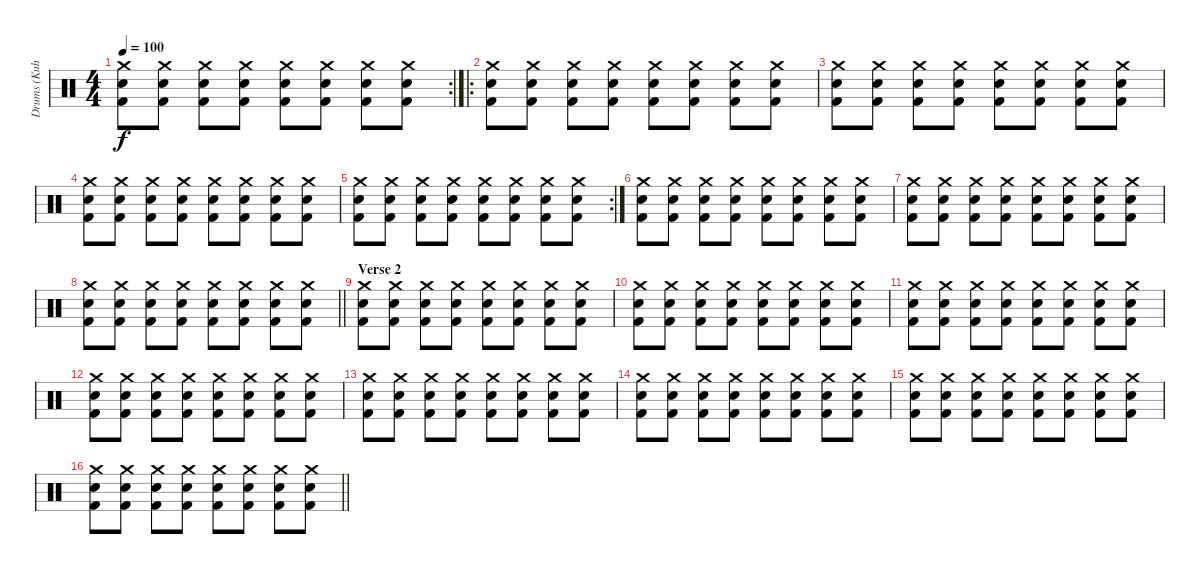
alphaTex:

\track ("Drums (Kuhara)" "Drums (Kuh") {instrument percussion}
\staff {score}
\articulation defaults
\rc 2
\ts (4 4)
\tempo 100
\clef neutral
\ks c
("Crash medium (hit)" "Electric Snare (hit)" "Kick (hit) 2").8{dy f} ("Crash medium (hit)" "Electric Snare (hit)" "Kick (hit) 2").8 ("Crash medium (hit)" "Electric Snare (hit)" "Kick (hit) 2").8 ("Crash medium (hit)" "Electric Snare (hit)" "Kick (hit) 2").8 ("Crash medium (hit)" "Electric Snare (hit)" "Kick (hit) 2").8 ("Crash medium (hit)" "Electric Snare (hit)" "Kick (hit) 2").8 ("Crash medium (hit)" "Electric Snare (hit)" "Kick (hit) 2").8 ("Crash medium (hit)" "Electric Snare (hit)" "Kick (hit) 2").8 |
\ro
("Crash medium (hit)" "Electric Snare (hit)" "Kick (hit) 2").8 ("Crash medium (hit)" "Electric Snare (hit)" "Kick (hit) 2").8 ("Crash medium (hit)" "Electric Snare (hit)" "Kick (hit) 2").8 ("Crash medium (hit)" "Electric Snare (hit)" "Kick (hit) 2").8 ("Crash medium (hit)" "Electric Snare (hit)" "Kick (hit) 2").8 ("Crash medium (hit)" "Electric Snare (hit)" "Kick (hit) 2").8 ("Crash medium (hit)" "Electric Snare (hit)" "Kick (hit) 2").8 ("Crash medium (hit)" "Electric Snare (hit)" "Kick (hit) 2").8 |
("Crash medium (hit)" "Electric Snare (hit)" "Kick (hit) 2").8 ("Crash medium (hit)" "Electric Snare (hit)" "Kick (hit) 2").8 ("Crash medium (hit)" "Electric Snare (hit)" "Kick (hit) 2").8 ("Crash medium (hit)" "Electric Snare (hit)" "Kick (hit) 2").8 ("Crash medium (hit)" "Electric Snare (hit)" "Kick (hit) 2").8 ("Crash medium (hit)" "Electric Snare (hit)" "Kick (hit) 2").8 ("Crash medium (hit)" "Electric Snare (hit)" "Kick (hit) 2").8 ("Crash medium (hit)" "Electric Snare (hit)" "Kick (hit) 2").8 |
("Crash medium (hit)" "Electric Snare (hit)" "Kick (hit) 2").8 ("Crash medium (hit)" "Electric Snare (hit)" "Kick (hit) 2").8 ("Crash medium (hit)" "Electric Snare (hit)" "Kick (hit) 2").8 ("Crash medium (hit)" "Electric Snare (hit)" "Kick (hit) 2").8 ("Crash medium (hit)" "Electric Snare (hit)" "Kick (hit) 2").8 ("Crash medium (hit)" "Electric Snare (hit)" "Kick (hit) 2").8 ("Crash medium (hit)" "Electric Snare (hit)" "Kick (hit) 2").8 ("Crash medium (hit)" "Electric Snare (hit)" "Kick (hit) 2").8 |
\rc 2
("Crash medium (hit)" "Electric Snare (hit)" "Kick (hit) 2").8 ("Crash medium (hit)" "Electric Snare (hit)" "Kick (hit) 2").8 ("Crash medium (hit)" "Electric Snare (hit)" "Kick (hit) 2").8 ("Crash medium (hit)" "Electric Snare (hit)" "Kick (hit) 2").8 ("Crash medium (hit)" "Electric Snare (hit)" "Kick (hit) 2").8 ("Crash medium (hit)" "Electric Snare (hit)" "Kick (hit) 2").8 ("Crash medium (hit)" "Electric Snare (hit)" "Kick (hit) 2").8 ("Crash medium (hit)" "Electric Snare (hit)" "Kick (hit) 2").8 |
("Crash medium (hit)" "Electric Snare (hit)" "Kick (hit) 2").8 ("Crash medium (hit)" "Electric Snare (hit)" "Kick (hit) 2").8 ("Crash medium (hit)" "Electric Snare (hit)" "Kick (hit) 2").8 ("Crash medium (hit)" "Electric Snare (hit)" "Kick (hit) 2").8 ("Crash medium (hit)" "Electric Snare (hit)" "Kick (hit) 2").8 ("Crash medium (hit)" "Electric Snare (hit)" "Kick (hit) 2").8 ("Crash medium (hit)" "Electric Snare (hit)" "Kick (hit) 2").8 ("Crash medium (hit)" "Electric Snare (hit)" "Kick (hit) 2").8 |
("Crash medium (hit)" "Electric Snare (hit)" "Kick (hit) 2").8 ("Crash medium (hit)" "Electric Snare (hit)" "Kick (hit) 2").8 ("Crash medium (hit)" "Electric Snare (hit)" "Kick (hit) 2").8 ("Crash medium (hit)" "Electric Snare (hit)" "Kick (hit) 2").8 ("Crash medium (hit)" "Electric Snare (hit)" "Kick (hit) 2").8 ("Crash medium (hit)" "Electric Snare (hit)" "Kick (hit) 2").8 ("Crash medium (hit)" "Electric Snare (hit)" "Kick (hit) 2").8 ("Crash medium (hit)" "Electric Snare (hit)" "Kick (hit) 2").8 |
\barLineRight lightlight
("Crash medium (hit)" "Electric Snare (hit)" "Kick (hit) 2").8 ("Crash medium (hit)" "Electric Snare (hit)" "Kick (hit) 2").8 ("Crash medium (hit)" "Electric Snare (hit)" "Kick (hit) 2").8 ("Crash medium (hit)" "Electric Snare (hit)" "Kick (hit) 2").8 ("Crash medium (hit)" "Electric Snare (hit)" "Kick (hit) 2").8 ("Crash medium (hit)" "Electric Snare (hit)" "Kick (hit) 2").8 ("Crash medium (hit)" "Electric Snare (hit)" "Kick (hit) 2").8 ("Crash medium (hit)" "Electric Snare (hit)" "Kick (hit) 2").8 |
\section ("" "Verse 2")
("Crash medium (hit)" "Electric Snare (hit)" "Kick (hit) 2").8 ("Crash medium (hit)" "Electric Snare (hit)" "Kick (hit) 2").8 ("Crash medium (hit)" "Electric Snare (hit)" "Kick (hit) 2").8 ("Crash medium (hit)" "Electric Snare (hit)" "Kick (hit) 2").8 ("Crash medium (hit)" "Electric Snare (hit)" "Kick (hit) 2").8 ("Crash medium (hit)" "Electric Snare (hit)" "Kick (hit) 2").8 ("Crash medium (hit)" "Electric Snare (hit)" "Kick (hit) 2").8 ("Crash medium (hit)" "Electric Snare (hit)" "Kick (hit) 2").8 |
("Crash medium (hit)" "Electric Snare (hit)" "Kick (hit) 2").8 ("Crash medium (hit)" "Electric Snare (hit)" "Kick (hit) 2").8 ("Crash medium (hit)" "Electric Snare (hit)" "Kick (hit) 2").8 ("Crash medium (hit)" "Electric Snare (hit)" "Kick (hit) 2").8 ("Crash medium (hit)" "Electric Snare (hit)" "Kick (hit) 2").8 ("Crash medium (hit)" "Electric Snare (hit)" "Kick (hit) 2").8 ("Crash medium (hit)" "Electric Snare (hit)" "Kick (hit) 2").8 ("Crash medium (hit)" "Electric Snare (hit)" "Kick (hit) 2").8 |
("Crash medium (hit)" "Electric Snare (hit)" "Kick (hit) 2").8 ("Crash medium (hit)" "Electric Snare (hit)" "Kick (hit) 2").8 ("Crash medium (hit)" "Electric Snare (hit)" "Kick (hit) 2").8 ("Crash medium (hit)" "Electric Snare (hit)" "Kick (hit) 2").8 ("Crash medium (hit)" "Electric Snare (hit)" "Kick (hit) 2").8 ("Crash medium (hit)" "Electric Snare (hit)" "Kick (hit) 2").8 ("Crash medium (hit)" "Electric Snare (hit)" "Kick (hit) 2").8 ("Crash medium (hit)" "Electric Snare (hit)" "Kick (hit) 2").8 |
("Crash medium (hit)" "Electric Snare (hit)" "Kick (hit) 2").8 ("Crash medium (hit)" "Electric Snare (hit)" "Kick (hit) 2").8 ("Crash medium (hit)" "Electric Snare (hit)" "Kick (hit) 2").8 ("Crash medium (hit)" "Electric Snare (hit)" "Kick (hit) 2").8 ("Crash medium (hit)" "Electric Snare (hit)" "Kick (hit) 2").8 ("Crash medium (hit)" "Electric Snare (hit)" "Kick (hit) 2").8 ("Crash medium (hit)" "Electric Snare (hit)" "Kick (hit) 2").8 ("Crash medium (hit)" "Electric Snare (hit)" "Kick (hit) 2").8 |
("Crash medium (hit)" "Electric Snare (hit)" "Kick (hit) 2").8 ("Crash medium (hit)" "Electric Snare (hit)" "Kick (hit) 2").8 ("Crash medium (hit)" "Electric Snare (hit)" "Kick (hit) 2").8 ("Crash medium (hit)" "Electric Snare (hit)" "Kick (hit) 2").8 ("Crash medium (hit)" "Electric Snare (hit)" "Kick (hit) 2").8 ("Crash medium (hit)" "Electric Snare (hit)" "Kick (hit) 2").8 ("Crash medium (hit)" "Electric Snare (hit)" "Kick (hit) 2").8 ("Crash medium (hit)" "Electric Snare (hit)" "Kick (hit) 2").8 |
("Crash medium (hit)" "Electric Snare (hit)" "Kick (hit) 2").8 ("Crash medium (hit)" "Electric Snare (hit)" "Kick (hit) 2").8 ("Crash medium (hit)" "Electric Snare (hit)" "Kick (hit) 2").8 ("Crash medium (hit)" "Electric Snare (hit)" "Kick (hit) 2").8 ("Crash medium (hit)" "Electric Snare (hit)" "Kick (hit) 2").8 ("Crash medium (hit)" "Electric Snare (hit)" "Kick (hit) 2").8 ("Crash medium (hit)" "Electric Snare (hit)" "Kick (hit) 2").8 ("Crash medium (hit)" "Electric Snare (hit)" "Kick (hit) 2").8 |
("Crash medium (hit)" "Electric Snare (hit)" "Kick (hit) 2").8 ("Crash medium (hit)" "Electric Snare (hit)" "Kick (hit) 2").8 ("Crash medium (hit)" "Electric Snare (hit)" "Kick (hit) 2").8 ("Crash medium (hit)" "Electric Snare (hit)" "Kick (hit) 2").8 ("Crash medium (hit)" "Electric Snare (hit)" "Kick (hit) 2").8 ("Crash medium (hit)" "Electric Snare (hit)" "Kick (hit) 2").8 ("Crash medium (hit)" "Electric Snare (hit)" "Kick (hit) 2").8 ("Crash medium (hit)" "Electric Snare (hit)" "Kick (hit) 2").8 |
\barLineRight lightlight
("Crash medium (hit)" "Electric Snare (hit)" "Kick (hit) 2").8 ("Crash medium (hit)" "Electric Snare (hit)" "Kick (hit) 2").8 ("Crash medium (hit)" "Electric Snare (hit)" "Kick (hit) 2").8 ("Crash medium (hit)" "Electric Snare (hit)" "Kick (hit) 2").8 ("Crash medium (hit)" "Electric Snare (hit)" "Kick (hit) 2").8 ("Crash medium (hit)" "Electric Snare (hit)" "Kick (hit) 2").8 ("Crash medium (hit)" "Electric Snare (hit)" "Kick (hit) 2").8 ("Crash medium (hit)" "Electric Snare (hit)" "Kick (hit) 2").8
